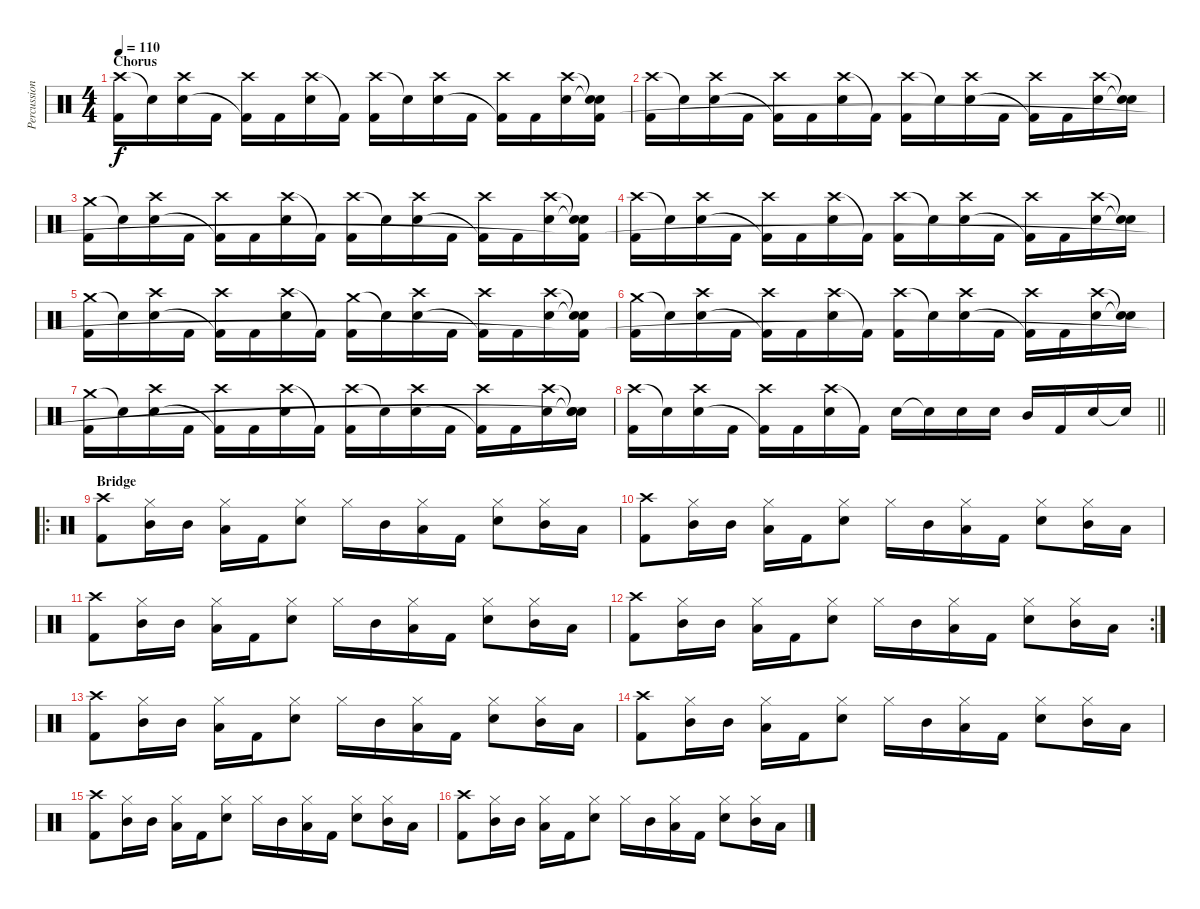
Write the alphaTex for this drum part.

\track ("Percussion" "Percussion") {instrument percussion}
\staff {score}
\articulation defaults
\ts (4 4)
\section ("" "Chorus")
\tempo 110
\clef neutral
\ks c
("Crash high (hit)" "Kick (hit) 2").16{dy f} "Snare (hit)"{t}.16 ("Crash high (hit)" "Electric Snare (hit)").16 "Kick (hit) 2".16 ("Crash high (hit)" "Kick (hit) 2"{t}).16 "Kick (hit) 2".16 ("Crash high (hit)" "Electric Snare (hit)").16 "Kick (hit) 2"{t}.16 ("Crash high (hit)" "Kick (hit) 2").16 "Snare (hit)"{t}.16 ("Crash high (hit)" "Electric Snare (hit)").16 "Kick (hit) 2".16 ("Crash high (hit)" "Kick (hit) 2"{t}).16 "Kick (hit) 2".16 ("Crash high (hit)" "Electric Snare (hit)").16 ("Snare (hit)"{t} "Snare (hit)"{t} "Kick (hit) 2"{t}).16 |
("Crash high (hit)" "Kick (hit) 2").16 "Snare (hit)"{t}.16 ("Crash high (hit)" "Electric Snare (hit)").16 "Kick (hit) 2".16 ("Crash high (hit)" "Kick (hit) 2"{t}).16 "Kick (hit) 2".16 ("Crash high (hit)" "Electric Snare (hit)").16 "Kick (hit) 2"{t}.16 ("Crash high (hit)" "Kick (hit) 2").16 "Snare (hit)"{t}.16 ("Crash high (hit)" "Electric Snare (hit)").16 "Kick (hit) 2".16 ("Crash high (hit)" "Kick (hit) 2"{t}).16 "Kick (hit) 2".16 ("Crash high (hit)" "Electric Snare (hit)").16 ("Snare (hit)"{t} "Snare (hit)"{t}).16 |
("Crash medium (hit)" "Kick (hit) 2").16 "Snare (hit)"{t}.16 ("Crash high (hit)" "Electric Snare (hit)").16 "Kick (hit) 2".16 ("Crash high (hit)" "Kick (hit) 2"{t}).16 "Kick (hit) 2".16 ("Crash high (hit)" "Electric Snare (hit)").16 "Kick (hit) 2"{t}.16 ("Crash high (hit)" "Kick (hit) 2").16 "Snare (hit)"{t}.16 ("Crash high (hit)" "Electric Snare (hit)").16 "Kick (hit) 2".16 ("Crash high (hit)" "Kick (hit) 2"{t}).16 "Kick (hit) 2".16 ("Crash high (hit)" "Electric Snare (hit)").16 ("Snare (hit)"{t} "Snare (hit)"{t} "Kick (hit) 2"{t}).16 |
("Crash high (hit)" "Kick (hit) 2").16 "Snare (hit)"{t}.16 ("Crash high (hit)" "Electric Snare (hit)").16 "Kick (hit) 2".16 ("Crash high (hit)" "Kick (hit) 2"{t}).16 "Kick (hit) 2".16 ("Crash high (hit)" "Electric Snare (hit)").16 "Kick (hit) 2"{t}.16 ("Crash high (hit)" "Kick (hit) 2").16 "Snare (hit)"{t}.16 ("Crash high (hit)" "Electric Snare (hit)").16 "Kick (hit) 2".16 ("Crash high (hit)" "Kick (hit) 2"{t}).16 "Kick (hit) 2".16 ("Crash high (hit)" "Electric Snare (hit)").16 ("Snare (hit)"{t} "Snare (hit)"{t}).16 |
("Crash medium (hit)" "Kick (hit) 2").16 "Snare (hit)"{t}.16 ("Crash high (hit)" "Electric Snare (hit)").16 "Kick (hit) 2".16 ("Crash high (hit)" "Kick (hit) 2"{t}).16 "Kick (hit) 2".16 ("Crash high (hit)" "Electric Snare (hit)").16 "Kick (hit) 2"{t}.16 ("Crash medium (hit)" "Kick (hit) 2").16 "Snare (hit)"{t}.16 ("Crash high (hit)" "Electric Snare (hit)").16 "Kick (hit) 2".16 ("Crash high (hit)" "Kick (hit) 2"{t}).16 "Kick (hit) 2".16 ("Crash high (hit)" "Electric Snare (hit)").16 ("Snare (hit)"{t} "Snare (hit)"{t} "Kick (hit) 2"{t}).16 |
("Crash medium (hit)" "Kick (hit) 2").16 "Snare (hit)"{t}.16 ("Crash high (hit)" "Electric Snare (hit)").16 "Kick (hit) 2".16 ("Crash high (hit)" "Kick (hit) 2"{t}).16 "Kick (hit) 2".16 ("Crash high (hit)" "Electric Snare (hit)").16 "Kick (hit) 2"{t}.16 ("Crash high (hit)" "Kick (hit) 2").16 "Snare (hit)"{t}.16 ("Crash high (hit)" "Electric Snare (hit)").16 "Kick (hit) 2".16 ("Crash high (hit)" "Kick (hit) 2"{t}).16 "Kick (hit) 2".16 ("Crash high (hit)" "Electric Snare (hit)").16 ("Snare (hit)"{t} "Snare (hit)"{t}).16 |
("Crash medium (hit)" "Kick (hit) 2").16 "Snare (hit)"{t}.16 ("Crash high (hit)" "Electric Snare (hit)").16 "Kick (hit) 2".16 ("Crash high (hit)" "Kick (hit) 2"{t}).16 "Kick (hit) 2".16 ("Crash high (hit)" "Electric Snare (hit)").16 "Kick (hit) 2"{t}.16 ("Crash high (hit)" "Kick (hit) 2").16 "Snare (hit)"{t}.16 ("Crash high (hit)" "Electric Snare (hit)").16 "Kick (hit) 2".16 ("Crash high (hit)" "Kick (hit) 2"{t}).16 "Kick (hit) 2".16 ("Crash high (hit)" "Electric Snare (hit)").16 ("Snare (hit)"{t} "Snare (hit)"{t} "Snare (hit)"{t}).16 |
\barLineRight lightlight
("Crash high (hit)" "Kick (hit) 2").16 "Snare (hit)"{t}.16 ("Crash high (hit)" "Electric Snare (hit)").16 "Kick (hit) 2".16 ("Crash high (hit)" "Kick (hit) 2"{t}).16 "Kick (hit) 2".16 ("Crash high (hit)" "Electric Snare (hit)").16 "Kick (hit) 2"{t}.16 "Electric Snare (hit)".16 "Snare (hit)"{t}.16 "Electric Snare (hit)".16 "Electric Snare (hit)".16 "Mid Tom (hit)".16 "Kick (hit) 2".16 "Electric Snare (hit)".16 "Snare (hit)"{t}.16 |
\ro
\section ("" "Bridge")
("Crash high (hit)" "Kick (hit) 2").8 ("Hi-Hat (closed)" "Mid Tom (hit)").16 "Mid Tom (hit)".16 ("Hi-Hat (closed)" "Low Tom (hit)").16 "Kick (hit) 2".16 ("Hi-Hat (closed)" "Electric Snare (hit)").8 "Hi-Hat (closed)".16 "Mid Tom (hit)".16 ("Hi-Hat (closed)" "Low Tom (hit)").16 "Kick (hit) 2".16 ("Hi-Hat (closed)" "Electric Snare (hit)").8 ("Hi-Hat (closed)" "Mid Tom (hit)").16 "Low Tom (hit)".16 |
("Crash high (hit)" "Kick (hit) 2").8 ("Hi-Hat (closed)" "Mid Tom (hit)").16 "Mid Tom (hit)".16 ("Hi-Hat (closed)" "Low Tom (hit)").16 "Kick (hit) 2".16 ("Hi-Hat (closed)" "Electric Snare (hit)").8 "Hi-Hat (closed)".16 "Mid Tom (hit)".16 ("Hi-Hat (closed)" "Low Tom (hit)").16 "Kick (hit) 2".16 ("Hi-Hat (closed)" "Electric Snare (hit)").8 ("Hi-Hat (closed)" "Mid Tom (hit)").16 "Low Tom (hit)".16 |
("Crash high (hit)" "Kick (hit) 2").8 ("Hi-Hat (closed)" "Mid Tom (hit)").16 "Mid Tom (hit)".16 ("Hi-Hat (closed)" "Low Tom (hit)").16 "Kick (hit) 2".16 ("Hi-Hat (closed)" "Electric Snare (hit)").8 "Hi-Hat (closed)".16 "Mid Tom (hit)".16 ("Hi-Hat (closed)" "Low Tom (hit)").16 "Kick (hit) 2".16 ("Hi-Hat (closed)" "Electric Snare (hit)").8 ("Hi-Hat (closed)" "Mid Tom (hit)").16 "Low Tom (hit)".16 |
\rc 2
("Crash high (hit)" "Kick (hit) 2").8 ("Hi-Hat (closed)" "Mid Tom (hit)").16 "Mid Tom (hit)".16 ("Hi-Hat (closed)" "Low Tom (hit)").16 "Kick (hit) 2".16 ("Hi-Hat (closed)" "Electric Snare (hit)").8 "Hi-Hat (closed)".16 "Mid Tom (hit)".16 ("Hi-Hat (closed)" "Low Tom (hit)").16 "Kick (hit) 2".16 ("Hi-Hat (closed)" "Electric Snare (hit)").8 ("Hi-Hat (closed)" "Mid Tom (hit)").16 "Low Tom (hit)".16 |
("Crash high (hit)" "Kick (hit) 2").8 ("Hi-Hat (closed)" "Mid Tom (hit)").16 "Mid Tom (hit)".16 ("Hi-Hat (closed)" "Low Tom (hit)").16 "Kick (hit) 2".16 ("Hi-Hat (closed)" "Electric Snare (hit)").8 "Hi-Hat (closed)".16 "Mid Tom (hit)".16 ("Hi-Hat (closed)" "Low Tom (hit)").16 "Kick (hit) 2".16 ("Hi-Hat (closed)" "Electric Snare (hit)").8 ("Hi-Hat (closed)" "Mid Tom (hit)").16 "Low Tom (hit)".16 |
("Crash high (hit)" "Kick (hit) 2").8 ("Hi-Hat (closed)" "Mid Tom (hit)").16 "Mid Tom (hit)".16 ("Hi-Hat (closed)" "Low Tom (hit)").16 "Kick (hit) 2".16 ("Hi-Hat (closed)" "Electric Snare (hit)").8 "Hi-Hat (closed)".16 "Mid Tom (hit)".16 ("Hi-Hat (closed)" "Low Tom (hit)").16 "Kick (hit) 2".16 ("Hi-Hat (closed)" "Electric Snare (hit)").8 ("Hi-Hat (closed)" "Mid Tom (hit)").16 "Low Tom (hit)".16 |
("Crash high (hit)" "Kick (hit) 2").8 ("Hi-Hat (closed)" "Mid Tom (hit)").16 "Mid Tom (hit)".16 ("Hi-Hat (closed)" "Low Tom (hit)").16 "Kick (hit) 2".16 ("Hi-Hat (closed)" "Electric Snare (hit)").8 "Hi-Hat (closed)".16 "Mid Tom (hit)".16 ("Hi-Hat (closed)" "Low Tom (hit)").16 "Kick (hit) 2".16 ("Hi-Hat (closed)" "Electric Snare (hit)").8 ("Hi-Hat (closed)" "Mid Tom (hit)").16 "Low Tom (hit)".16 |
("Crash high (hit)" "Kick (hit) 2").8 ("Hi-Hat (closed)" "Mid Tom (hit)").16 "Mid Tom (hit)".16 ("Hi-Hat (closed)" "Low Tom (hit)").16 "Kick (hit) 2".16 ("Hi-Hat (closed)" "Electric Snare (hit)").8 "Hi-Hat (closed)".16 "Mid Tom (hit)".16 ("Hi-Hat (closed)" "Low Tom (hit)").16 "Kick (hit) 2".16 ("Hi-Hat (closed)" "Electric Snare (hit)").8 ("Hi-Hat (closed)" "Mid Tom (hit)").16 "Low Tom (hit)".16
